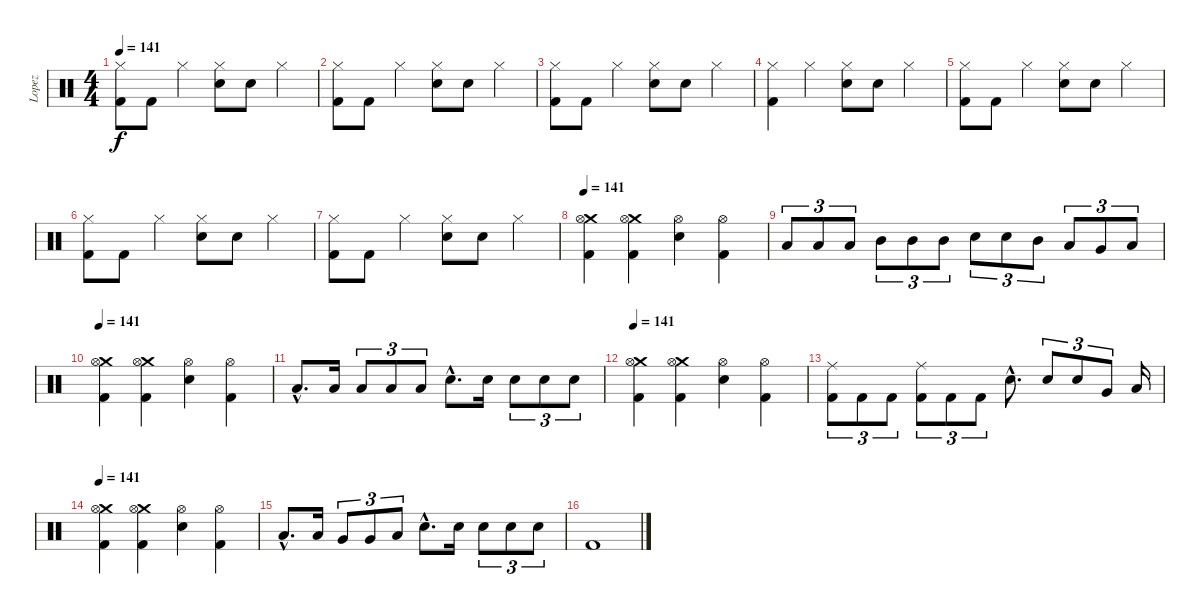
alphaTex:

\track ("Lopez" "Lopez") {instrument percussion}
\staff {score}
\articulation defaults
\ts (4 4)
\tempo 141
\clef neutral
\ks c
("Hi-Hat (closed)" "Kick (hit) 2").8{dy f} "Kick (hit) 2".8 "Hi-Hat (closed)".4 ("Hi-Hat (closed)" "Electric Snare (hit)").8 "Electric Snare (hit)".8 "Hi-Hat (closed)".4 |
("Hi-Hat (closed)" "Kick (hit) 2").8 "Kick (hit) 2".8 "Hi-Hat (closed)".4 ("Hi-Hat (closed)" "Electric Snare (hit)").8 "Electric Snare (hit)".8 "Hi-Hat (closed)".4 |
("Hi-Hat (closed)" "Kick (hit) 2").8 "Kick (hit) 2".8 "Hi-Hat (closed)".4 ("Hi-Hat (closed)" "Electric Snare (hit)").8 "Electric Snare (hit)".8 "Hi-Hat (closed)".4 |
("Hi-Hat (closed)" "Kick (hit) 2").4 "Hi-Hat (closed)".4 ("Hi-Hat (closed)" "Electric Snare (hit)").8 "Electric Snare (hit)".8 "Hi-Hat (closed)".4 |
("Hi-Hat (closed)" "Kick (hit) 2").8 "Kick (hit) 2".8 "Hi-Hat (closed)".4 ("Hi-Hat (closed)" "Electric Snare (hit)").8 "Electric Snare (hit)".8 "Hi-Hat (closed)".4 |
("Hi-Hat (closed)" "Kick (hit) 2").8 "Kick (hit) 2".8 "Hi-Hat (closed)".4 ("Hi-Hat (closed)" "Electric Snare (hit)").8 "Electric Snare (hit)".8 "Hi-Hat (closed)".4 |
("Hi-Hat (closed)" "Kick (hit) 2").8 "Kick (hit) 2".8 "Hi-Hat (closed)".4 ("Hi-Hat (closed)" "Electric Snare (hit)").8 "Electric Snare (hit)".8 "Hi-Hat (closed)".4 |
\tempo 141
("Crash medium (hit)" "Hi-Hat (open)" "Kick (hit) 2").4 ("Crash medium (hit)" "Hi-Hat (open)" "Kick (hit) 2").4 ("Hi-Hat (open)" "Electric Snare (hit)").4 ("Hi-Hat (open)" "Kick (hit) 2").4 |
"Low Tom (hit)".8{tu (3 2)} "Low Tom (hit)".8{tu (3 2)} "Low Tom (hit)".8{tu (3 2)} "Mid Tom (hit)".8{tu (3 2)} "Mid Tom (hit)".8{tu (3 2)} "Mid Tom (hit)".8{tu (3 2)} "Electric Snare (hit)".8{tu (3 2)} "Electric Snare (hit)".8{tu (3 2)} "Mid Tom (hit)".8{tu (3 2)} "Low Tom (hit)".8{tu (3 2)} "Very Low Tom (hit)".8{tu (3 2)} "Low Floor Tom (hit)".8{tu (3 2)} |
\tempo 141
("Crash medium (hit)" "Hi-Hat (open)" "Kick (hit) 2").4 ("Crash medium (hit)" "Hi-Hat (open)" "Kick (hit) 2").4 ("Hi-Hat (open)" "Electric Snare (hit)").4 ("Hi-Hat (open)" "Kick (hit) 2").4 |
"Low Tom (hit)"{hac}.8{d} "Low Tom (hit)".16 "Low Tom (hit)".8{tu (3 2)} "Low Tom (hit)".8{tu (3 2)} "Low Tom (hit)".8{tu (3 2)} "Electric Snare (hit)"{hac}.8{d} "Electric Snare (hit)".16 "Electric Snare (hit)".8{tu (3 2)} "Electric Snare (hit)".8{tu (3 2)} "Electric Snare (hit)".8{tu (3 2)} |
\tempo 141
("Crash medium (hit)" "Hi-Hat (open)" "Kick (hit) 2").4 ("Crash medium (hit)" "Hi-Hat (open)" "Kick (hit) 2").4 ("Hi-Hat (open)" "Electric Snare (hit)").4 ("Hi-Hat (open)" "Kick (hit) 2").4 |
("Ride (middle)" "Kick (hit) 2").8{tu (3 2)} "Kick (hit) 2".8{tu (3 2)} "Kick (hit) 2".8{tu (3 2)} ("Ride (middle)" "Kick (hit) 2").8{tu (3 2)} "Kick (hit) 2".8{tu (3 2)} "Kick (hit) 2".8{tu (3 2)} "Electric Snare (hit)"{hac}.8{d} "Electric Snare (hit)".8{tu (3 2)} "Electric Snare (hit)".8{tu (3 2)} "Very Low Tom (hit)".8{tu (3 2)} "Low Floor Tom (hit)".16 |
\tempo 141
("Crash medium (hit)" "Hi-Hat (open)" "Kick (hit) 2").4 ("Crash medium (hit)" "Hi-Hat (open)" "Kick (hit) 2").4 ("Hi-Hat (open)" "Electric Snare (hit)").4 ("Hi-Hat (open)" "Kick (hit) 2").4 |
"Low Tom (hit)"{hac}.8{d} "Low Tom (hit)".16 "Very Low Tom (hit)".8{tu (3 2)} "Very Low Tom (hit)".8{tu (3 2)} "Low Floor Tom (hit)".8{tu (3 2)} "Electric Snare (hit)"{hac}.8{d} "Electric Snare (hit)".16 "Electric Snare (hit)".8{tu (3 2)} "Electric Snare (hit)".8{tu (3 2)} "Electric Snare (hit)".8{tu (3 2)} |
"Kick (hit) 2".1
